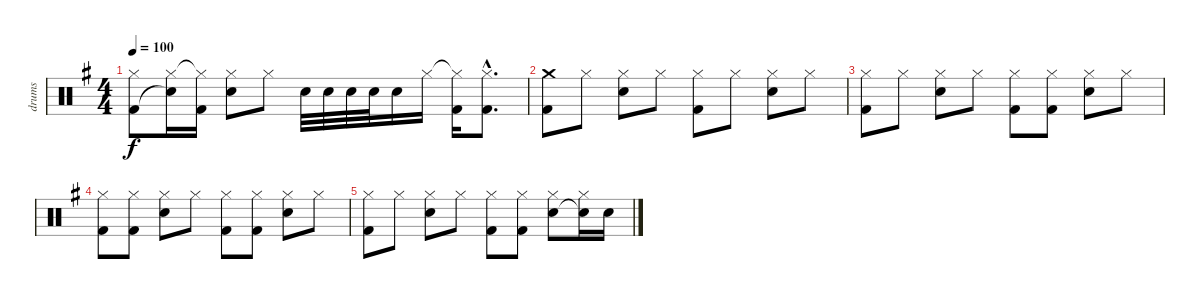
\track ("drums" "drums") {instrument percussion}
\staff {score}
\articulation defaults
\ts (4 4)
\tempo 100
\clef neutral
\ks g
("Hi-Hat (closed)" "Kick (hit) 2").8{dy f} ("Hi-Hat (closed)" "Snare (hit)"{t}).16 ("Hi-Hat (closed)"{t} "Kick (hit) 2").16 ("Hi-Hat (closed)" "Snare (hit) 2").8 "Hi-Hat (closed)".8 "Snare (hit) 2".32 "Snare (hit) 2".32 "Snare (hit) 2".32 "Snare (hit) 2".32 "Snare (hit) 2".16 "Hi-Hat (closed)".16 ("Hi-Hat (closed)"{t} "Kick (hit) 2").16 ("Hi-Hat (closed)"{hac} "Kick (hit) 2"{hac}).8{d} |
("Crash medium (hit)" "Kick (hit) 2").8 "Hi-Hat (closed)".8 ("Hi-Hat (closed)" "Snare (hit) 2").8 "Hi-Hat (closed)".8 ("Hi-Hat (closed)" "Kick (hit) 2").8 "Hi-Hat (closed)".8 ("Hi-Hat (closed)" "Snare (hit) 2").8 "Hi-Hat (closed)".8 |
("Hi-Hat (closed)" "Kick (hit) 2").8 "Hi-Hat (closed)".8 ("Hi-Hat (closed)" "Snare (hit) 2").8 "Hi-Hat (closed)".8 ("Hi-Hat (closed)" "Kick (hit) 2").8 ("Hi-Hat (closed)" "Kick (hit) 2").8 ("Hi-Hat (closed)" "Snare (hit) 2").8 "Hi-Hat (closed)".8 |
("Hi-Hat (closed)" "Kick (hit) 2").8 ("Hi-Hat (closed)" "Kick (hit) 2").8 ("Hi-Hat (closed)" "Snare (hit) 2").8 "Hi-Hat (closed)".8 ("Hi-Hat (closed)" "Kick (hit) 2").8 ("Hi-Hat (closed)" "Kick (hit) 2").8 ("Hi-Hat (closed)" "Snare (hit) 2").8 "Hi-Hat (closed)".8 |
("Hi-Hat (closed)" "Kick (hit) 2").8 "Hi-Hat (closed)".8 ("Hi-Hat (closed)" "Snare (hit) 2").8 "Hi-Hat (closed)".8 ("Hi-Hat (closed)" "Kick (hit) 2").8 ("Hi-Hat (closed)" "Kick (hit) 2").8 ("Hi-Hat (closed)" "Snare (hit) 2").8 ("Hi-Hat (closed)" "Snare (hit)"{t}).16 "Snare (hit) 2".16
